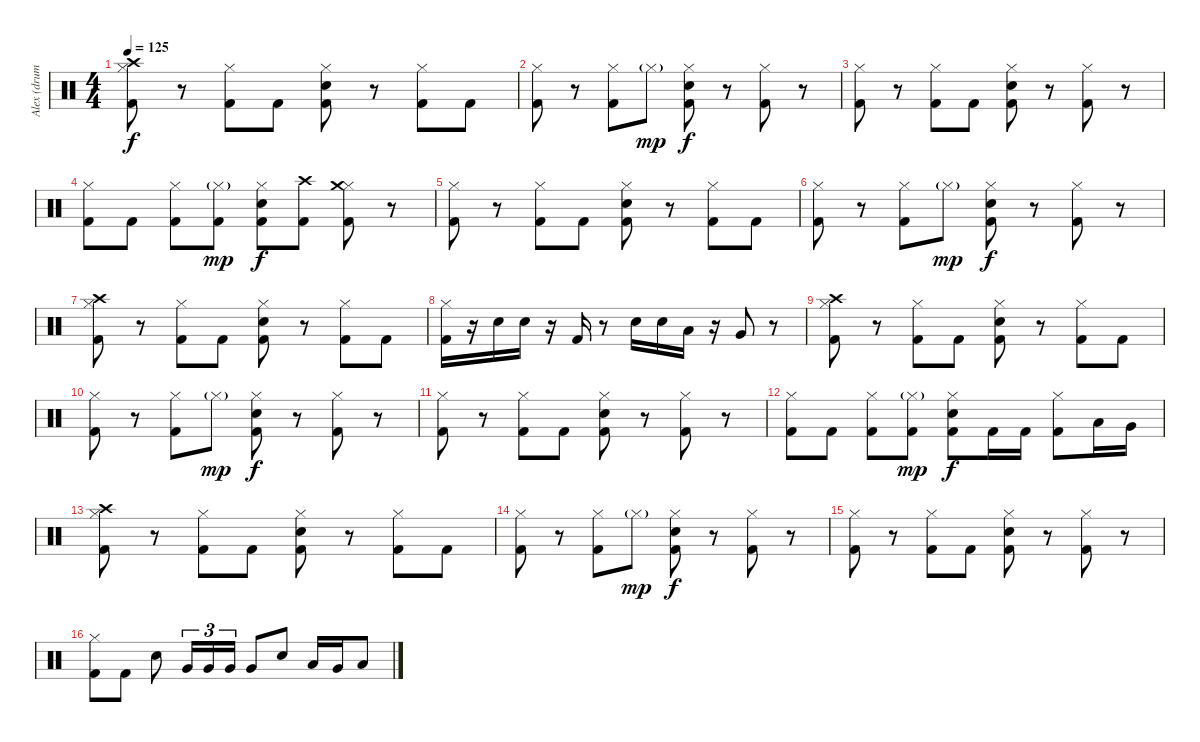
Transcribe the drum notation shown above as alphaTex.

\track ("Alex (drums)" "Alex (drum") {instrument percussion}
\staff {score}
\articulation defaults
\ts (4 4)
\tempo 125
\clef neutral
\ks c
("Hi-Hat (closed)" "Kick (hit) 2" "Crash high (hit)").8{dy f} r.8 ("Hi-Hat (closed)" "Kick (hit) 2").8 "Kick (hit) 2".8 ("Hi-Hat (closed)" "Snare (hit) 2" "Kick (hit) 2").8 r.8 ("Hi-Hat (closed)" "Kick (hit) 2").8 "Kick (hit) 2".8 |
("Hi-Hat (closed)" "Kick (hit) 2").8 r.8 ("Hi-Hat (closed)" "Kick (hit) 2").8 "Hi-Hat (closed)"{g}.8{dy mp} ("Hi-Hat (closed)" "Snare (hit) 2" "Kick (hit) 2").8{dy f} r.8 ("Hi-Hat (closed)" "Kick (hit) 2").8 r.8 |
("Hi-Hat (closed)" "Kick (hit) 2").8 r.8 ("Hi-Hat (closed)" "Kick (hit) 2").8 "Kick (hit) 2".8 ("Hi-Hat (closed)" "Snare (hit) 2" "Kick (hit) 2").8 r.8 ("Hi-Hat (closed)" "Kick (hit) 2").8 r.8 |
("Hi-Hat (closed)" "Kick (hit) 2").8 "Kick (hit) 2".8 ("Hi-Hat (closed)" "Kick (hit) 2").8 ("Hi-Hat (closed)"{g} "Kick (hit) 2").8{dy mp} ("Hi-Hat (closed)" "Snare (hit) 2" "Kick (hit) 2").8{dy f} ("Kick (hit) 2" "Crash high (hit)").8 ("Hi-Hat (closed)" "Kick (hit) 2" "Crash medium (hit)").8 r.8 |
("Hi-Hat (closed)" "Kick (hit) 2").8 r.8 ("Hi-Hat (closed)" "Kick (hit) 2").8 "Kick (hit) 2".8 ("Hi-Hat (closed)" "Snare (hit) 2" "Kick (hit) 2").8 r.8 ("Hi-Hat (closed)" "Kick (hit) 2").8 "Kick (hit) 2".8 |
("Hi-Hat (closed)" "Kick (hit) 2").8 r.8 ("Hi-Hat (closed)" "Kick (hit) 2").8 "Hi-Hat (closed)"{g}.8{dy mp} ("Hi-Hat (closed)" "Snare (hit) 2" "Kick (hit) 2").8{dy f} r.8 ("Hi-Hat (closed)" "Kick (hit) 2").8 r.8 |
("Hi-Hat (closed)" "Kick (hit) 2" "Crash high (hit)").8 r.8 ("Hi-Hat (closed)" "Kick (hit) 2").8 "Kick (hit) 2".8 ("Hi-Hat (closed)" "Snare (hit) 2" "Kick (hit) 2").8 r.8 ("Hi-Hat (closed)" "Kick (hit) 2").8 "Kick (hit) 2".8 |
("Hi-Hat (closed)" "Kick (hit) 2").16 r.16 "Snare (hit) 2".16 "Snare (hit) 2".16 r.16 "Kick (hit) 2".16 r.8 "Snare (hit) 2".16 "Snare (hit) 2".16 "Low Tom (hit)".16 r.16 "Very Low Tom (hit)".8 r.8 |
("Hi-Hat (closed)" "Kick (hit) 2" "Crash high (hit)").8 r.8 ("Hi-Hat (closed)" "Kick (hit) 2").8 "Kick (hit) 2".8 ("Hi-Hat (closed)" "Snare (hit) 2" "Kick (hit) 2").8 r.8 ("Hi-Hat (closed)" "Kick (hit) 2").8 "Kick (hit) 2".8 |
("Hi-Hat (closed)" "Kick (hit) 2").8 r.8 ("Hi-Hat (closed)" "Kick (hit) 2").8 "Hi-Hat (closed)"{g}.8{dy mp} ("Hi-Hat (closed)" "Snare (hit) 2" "Kick (hit) 2").8{dy f} r.8 ("Hi-Hat (closed)" "Kick (hit) 2").8 r.8 |
("Hi-Hat (closed)" "Kick (hit) 2").8 r.8 ("Hi-Hat (closed)" "Kick (hit) 2").8 "Kick (hit) 2".8 ("Hi-Hat (closed)" "Snare (hit) 2" "Kick (hit) 2").8 r.8 ("Hi-Hat (closed)" "Kick (hit) 2").8 r.8 |
("Hi-Hat (closed)" "Kick (hit) 2").8 "Kick (hit) 2".8 ("Hi-Hat (closed)" "Kick (hit) 2").8 ("Hi-Hat (closed)"{g} "Kick (hit) 2").8{dy mp} ("Hi-Hat (closed)" "Snare (hit) 2" "Kick (hit) 2").8{dy f} "Kick (hit) 2".16 "Kick (hit) 2".16 ("Hi-Hat (closed)" "Kick (hit) 2").8 "Low Tom (hit)".16 "Very Low Tom (hit)".16 |
("Hi-Hat (closed)" "Kick (hit) 2" "Crash high (hit)").8 r.8 ("Hi-Hat (closed)" "Kick (hit) 2").8 "Kick (hit) 2".8 ("Hi-Hat (closed)" "Snare (hit) 2" "Kick (hit) 2").8 r.8 ("Hi-Hat (closed)" "Kick (hit) 2").8 "Kick (hit) 2".8 |
("Hi-Hat (closed)" "Kick (hit) 2").8 r.8 ("Hi-Hat (closed)" "Kick (hit) 2").8 "Hi-Hat (closed)"{g}.8{dy mp} ("Hi-Hat (closed)" "Snare (hit) 2" "Kick (hit) 2").8{dy f} r.8 ("Hi-Hat (closed)" "Kick (hit) 2").8 r.8 |
("Hi-Hat (closed)" "Kick (hit) 2").8 r.8 ("Hi-Hat (closed)" "Kick (hit) 2").8 "Kick (hit) 2".8 ("Hi-Hat (closed)" "Snare (hit) 2" "Kick (hit) 2").8 r.8 ("Hi-Hat (closed)" "Kick (hit) 2").8 r.8 |
("Hi-Hat (closed)" "Kick (hit) 2").8 "Kick (hit) 2".8 "Snare (hit) 2".8 "Very Low Tom (hit)".16{tu (3 2)} "Very Low Tom (hit)".16{tu (3 2)} "Very Low Tom (hit)".16{tu (3 2)} "Very Low Tom (hit)".8 "Snare (hit) 2".8 "Low Tom (hit)".16 "Very Low Tom (hit)".16 "Low Floor Tom (hit)".8
